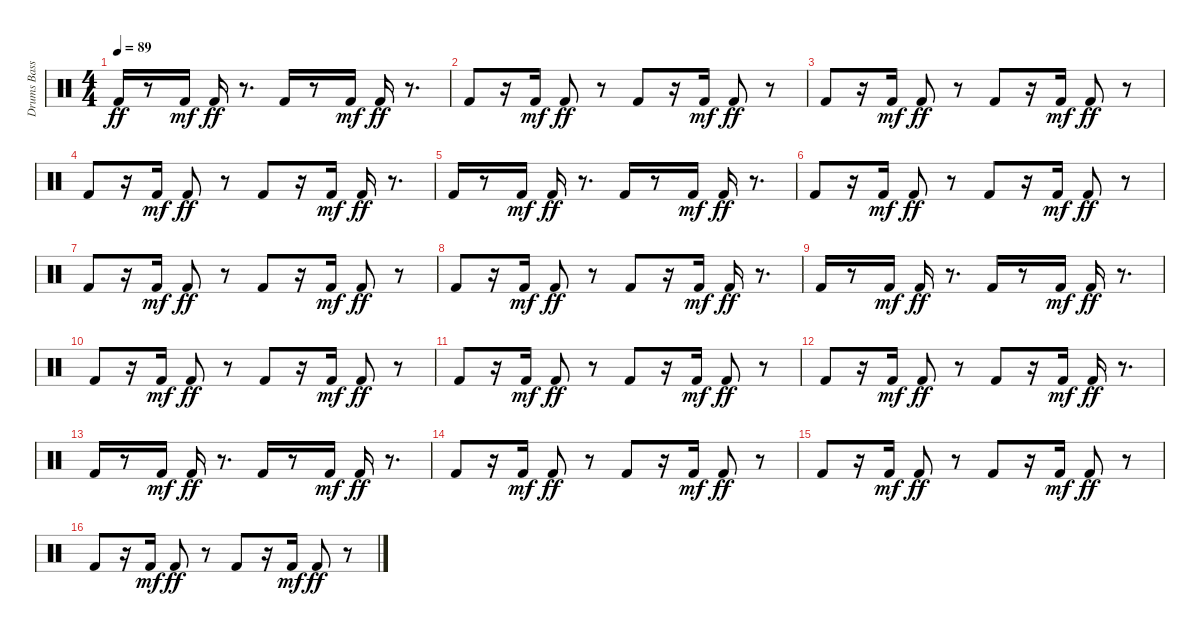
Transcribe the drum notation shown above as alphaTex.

\track ("Drums Bass" "Drums Bass") {instrument percussion}
\staff {score}
\articulation defaults
\ts (4 4)
\tempo 89
\clef neutral
\ks c "Kick (hit) 2".16{dy ff}
r.8 "Kick (hit) 2".16{dy mf} "Kick (hit) 2".16{dy ff} r.8{d} "Kick (hit) 2".16 r.8 "Kick (hit) 2".16{dy mf} "Kick (hit) 2".16{dy ff} r.8{d} |
"Kick (hit) 2".8 r.16 "Kick (hit) 2".16{dy mf} "Kick (hit) 2".8{dy ff} r.8 "Kick (hit) 2".8 r.16 "Kick (hit) 2".16{dy mf} "Kick (hit) 2".8{dy ff} r.8 |
"Kick (hit) 2".8 r.16 "Kick (hit) 2".16{dy mf} "Kick (hit) 2".8{dy ff} r.8 "Kick (hit) 2".8 r.16 "Kick (hit) 2".16{dy mf} "Kick (hit) 2".8{dy ff} r.8 |
"Kick (hit) 2".8 r.16 "Kick (hit) 2".16{dy mf} "Kick (hit) 2".8{dy ff} r.8 "Kick (hit) 2".8 r.16 "Kick (hit) 2".16{dy mf} "Kick (hit) 2".16{dy ff} r.8{d} |
"Kick (hit) 2".16 r.8 "Kick (hit) 2".16{dy mf} "Kick (hit) 2".16{dy ff} r.8{d} "Kick (hit) 2".16 r.8 "Kick (hit) 2".16{dy mf} "Kick (hit) 2".16{dy ff} r.8{d} |
"Kick (hit) 2".8 r.16 "Kick (hit) 2".16{dy mf} "Kick (hit) 2".8{dy ff} r.8 "Kick (hit) 2".8 r.16 "Kick (hit) 2".16{dy mf} "Kick (hit) 2".8{dy ff} r.8 |
"Kick (hit) 2".8 r.16 "Kick (hit) 2".16{dy mf} "Kick (hit) 2".8{dy ff} r.8 "Kick (hit) 2".8 r.16 "Kick (hit) 2".16{dy mf} "Kick (hit) 2".8{dy ff} r.8 |
"Kick (hit) 2".8 r.16 "Kick (hit) 2".16{dy mf} "Kick (hit) 2".8{dy ff} r.8 "Kick (hit) 2".8 r.16 "Kick (hit) 2".16{dy mf} "Kick (hit) 2".16{dy ff} r.8{d} |
"Kick (hit) 2".16 r.8 "Kick (hit) 2".16{dy mf} "Kick (hit) 2".16{dy ff} r.8{d} "Kick (hit) 2".16 r.8 "Kick (hit) 2".16{dy mf} "Kick (hit) 2".16{dy ff} r.8{d} |
"Kick (hit) 2".8 r.16 "Kick (hit) 2".16{dy mf} "Kick (hit) 2".8{dy ff} r.8 "Kick (hit) 2".8 r.16 "Kick (hit) 2".16{dy mf} "Kick (hit) 2".8{dy ff} r.8 |
"Kick (hit) 2".8 r.16 "Kick (hit) 2".16{dy mf} "Kick (hit) 2".8{dy ff} r.8 "Kick (hit) 2".8 r.16 "Kick (hit) 2".16{dy mf} "Kick (hit) 2".8{dy ff} r.8 |
"Kick (hit) 2".8 r.16 "Kick (hit) 2".16{dy mf} "Kick (hit) 2".8{dy ff} r.8 "Kick (hit) 2".8 r.16 "Kick (hit) 2".16{dy mf} "Kick (hit) 2".16{dy ff} r.8{d} |
"Kick (hit) 2".16 r.8 "Kick (hit) 2".16{dy mf} "Kick (hit) 2".16{dy ff} r.8{d} "Kick (hit) 2".16 r.8 "Kick (hit) 2".16{dy mf} "Kick (hit) 2".16{dy ff} r.8{d} |
"Kick (hit) 2".8 r.16 "Kick (hit) 2".16{dy mf} "Kick (hit) 2".8{dy ff} r.8 "Kick (hit) 2".8 r.16 "Kick (hit) 2".16{dy mf} "Kick (hit) 2".8{dy ff} r.8 |
"Kick (hit) 2".8 r.16 "Kick (hit) 2".16{dy mf} "Kick (hit) 2".8{dy ff} r.8 "Kick (hit) 2".8 r.16 "Kick (hit) 2".16{dy mf} "Kick (hit) 2".8{dy ff} r.8 |
"Kick (hit) 2".8 r.16 "Kick (hit) 2".16{dy mf} "Kick (hit) 2".8{dy ff} r.8 "Kick (hit) 2".8 r.16 "Kick (hit) 2".16{dy mf} "Kick (hit) 2".8{dy ff} r.8
